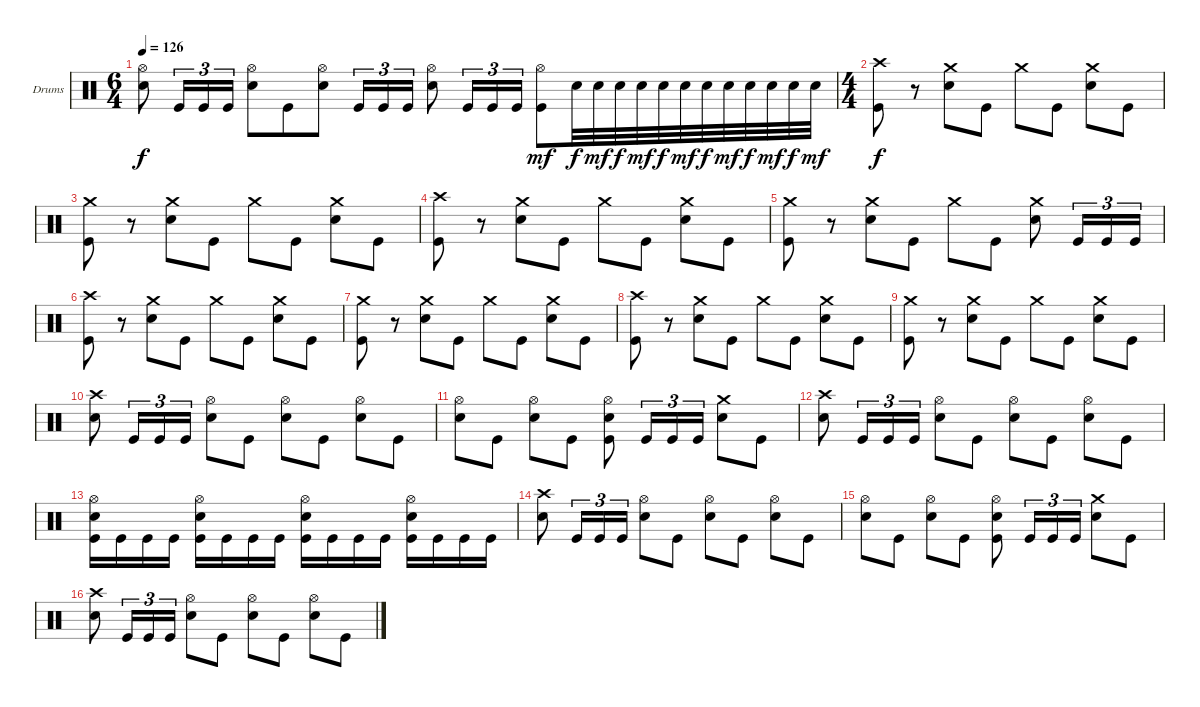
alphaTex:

\bracketExtendMode groupsimilarinstruments
\firstSystemTrackNameOrientation horizontal
\otherSystemsTrackNameOrientation horizontal
\track ("Drumkit" "Drums") {instrument percussion}
\staff {score}
\articulation defaults
\ts (6 4)
\beaming (8 6 6)
\tempo 126
\clef neutral
\ks c
("Hi-Hat (open)" "Snare (hit) 2").8{dy f} "Kick (hit)".16{tu (3 2)} "Kick (hit)".16{tu (3 2)} "Kick (hit)".16{tu (3 2)} ("Hi-Hat (open)" "Snare (hit) 2").8 "Kick (hit)".8 ("Hi-Hat (open)" "Snare (hit) 2").8 "Kick (hit)".16{tu (3 2)} "Kick (hit)".16{tu (3 2)} "Kick (hit)".16{tu (3 2)} ("Hi-Hat (open)" "Snare (hit) 2").8 "Kick (hit)".16{tu (3 2)} "Kick (hit)".16{tu (3 2)} "Kick (hit)".16{tu (3 2)} ("Hi-Hat (open)" "Kick (hit)").8{dy mf} "Snare (hit) 2".32{dy f} "Snare (hit) 2".32{dy mf} "Snare (hit) 2".32{dy f} "Snare (hit) 2".32{dy mf} "Snare (hit) 2".32{dy f} "Snare (hit) 2".32{dy mf} "Snare (hit) 2".32{dy f} "Snare (hit) 2".32{dy mf} "Snare (hit) 2".32{dy f} "Snare (hit) 2".32{dy mf} "Snare (hit) 2".32{dy f} "Snare (hit) 2".32{dy mf} |
\ts (4 4)
\beaming (8 2 2 2 2)
("Kick (hit)" "Crash high (hit)").8{dy f} r.8 ("Snare (hit) 2" "Crash medium (hit)").8 "Kick (hit)".8 "Crash medium (hit)".8 "Kick (hit)".8 ("Snare (hit) 2" "Crash medium (hit)").8 "Kick (hit)".8 |
("Kick (hit)" "Crash medium (hit)").8 r.8 ("Snare (hit) 2" "Crash medium (hit)").8 "Kick (hit)".8 "Crash medium (hit)".8 "Kick (hit)".8 ("Snare (hit) 2" "Crash medium (hit)").8 "Kick (hit)".8 |
("Kick (hit)" "Crash high (hit)").8 r.8 ("Snare (hit) 2" "Crash medium (hit)").8 "Kick (hit)".8 "Crash medium (hit)".8 "Kick (hit)".8 ("Snare (hit) 2" "Crash medium (hit)").8 "Kick (hit)".8 |
("Kick (hit)" "Crash medium (hit)").8 r.8 ("Snare (hit) 2" "Crash medium (hit)").8 "Kick (hit)".8 "Crash medium (hit)".8 "Kick (hit)".8 ("Snare (hit) 2" "Crash medium (hit)").8 "Kick (hit)".16{tu (3 2)} "Kick (hit)".16{tu (3 2)} "Kick (hit)".16{tu (3 2)} |
("Kick (hit)" "Crash high (hit)").8 r.8 ("Snare (hit) 2" "Crash medium (hit)").8 "Kick (hit)".8 "Crash medium (hit)".8 "Kick (hit)".8 ("Snare (hit) 2" "Crash medium (hit)").8 "Kick (hit)".8 |
("Kick (hit)" "Crash medium (hit)").8 r.8 ("Snare (hit) 2" "Crash medium (hit)").8 "Kick (hit)".8 "Crash medium (hit)".8 "Kick (hit)".8 ("Snare (hit) 2" "Crash medium (hit)").8 "Kick (hit)".8 |
("Kick (hit)" "Crash high (hit)").8 r.8 ("Snare (hit) 2" "Crash medium (hit)").8 "Kick (hit)".8 "Crash medium (hit)".8 "Kick (hit)".8 ("Snare (hit) 2" "Crash medium (hit)").8 "Kick (hit)".8 |
("Kick (hit)" "Crash medium (hit)").8 r.8 ("Snare (hit) 2" "Crash medium (hit)").8 "Kick (hit)".8 "Crash medium (hit)".8 "Kick (hit)".8 ("Snare (hit) 2" "Crash medium (hit)").8 "Kick (hit)".8 |
("Crash high (hit)" "Snare (hit) 2").8 "Kick (hit)".16{tu (3 2)} "Kick (hit)".16{tu (3 2)} "Kick (hit)".16{tu (3 2)} ("Hi-Hat (open)" "Snare (hit) 2").8 "Kick (hit)".8 ("Hi-Hat (open)" "Snare (hit) 2").8 "Kick (hit)".8 ("Hi-Hat (open)" "Snare (hit) 2").8 "Kick (hit)".8 |
("Hi-Hat (open)" "Snare (hit) 2").8 "Kick (hit)".8 ("Hi-Hat (open)" "Snare (hit) 2").8 "Kick (hit)".8 ("Hi-Hat (open)" "Snare (hit) 2" "Kick (hit)").8 "Kick (hit)".16{tu (3 2)} "Kick (hit)".16{tu (3 2)} "Kick (hit)".16{tu (3 2)} ("Crash medium (hit)" "Snare (hit) 2").8 "Kick (hit)".8 |
("Crash high (hit)" "Snare (hit) 2").8 "Kick (hit)".16{tu (3 2)} "Kick (hit)".16{tu (3 2)} "Kick (hit)".16{tu (3 2)} ("Hi-Hat (open)" "Snare (hit) 2").8 "Kick (hit)".8 ("Hi-Hat (open)" "Snare (hit) 2").8 "Kick (hit)".8 ("Hi-Hat (open)" "Snare (hit) 2").8 "Kick (hit)".8 |
("Hi-Hat (open)" "Snare (hit) 2" "Kick (hit)").16 "Kick (hit)".16 "Kick (hit)".16 "Kick (hit)".16 ("Hi-Hat (open)" "Snare (hit) 2" "Kick (hit)").16 "Kick (hit)".16 "Kick (hit)".16 "Kick (hit)".16 ("Hi-Hat (open)" "Snare (hit) 2" "Kick (hit)").16 "Kick (hit)".16 "Kick (hit)".16 "Kick (hit)".16 ("Hi-Hat (open)" "Snare (hit) 2" "Kick (hit)").16 "Kick (hit)".16 "Kick (hit)".16 "Kick (hit)".16 |
("Crash high (hit)" "Snare (hit) 2").8 "Kick (hit)".16{tu (3 2)} "Kick (hit)".16{tu (3 2)} "Kick (hit)".16{tu (3 2)} ("Hi-Hat (open)" "Snare (hit) 2").8 "Kick (hit)".8 ("Hi-Hat (open)" "Snare (hit) 2").8 "Kick (hit)".8 ("Hi-Hat (open)" "Snare (hit) 2").8 "Kick (hit)".8 |
("Hi-Hat (open)" "Snare (hit) 2").8 "Kick (hit)".8 ("Hi-Hat (open)" "Snare (hit) 2").8 "Kick (hit)".8 ("Hi-Hat (open)" "Snare (hit) 2" "Kick (hit)").8 "Kick (hit)".16{tu (3 2)} "Kick (hit)".16{tu (3 2)} "Kick (hit)".16{tu (3 2)} ("Crash medium (hit)" "Snare (hit) 2").8 "Kick (hit)".8 |
("Crash high (hit)" "Snare (hit) 2").8 "Kick (hit)".16{tu (3 2)} "Kick (hit)".16{tu (3 2)} "Kick (hit)".16{tu (3 2)} ("Hi-Hat (open)" "Snare (hit) 2").8 "Kick (hit)".8 ("Hi-Hat (open)" "Snare (hit) 2").8 "Kick (hit)".8 ("Hi-Hat (open)" "Snare (hit) 2").8 "Kick (hit)".8
